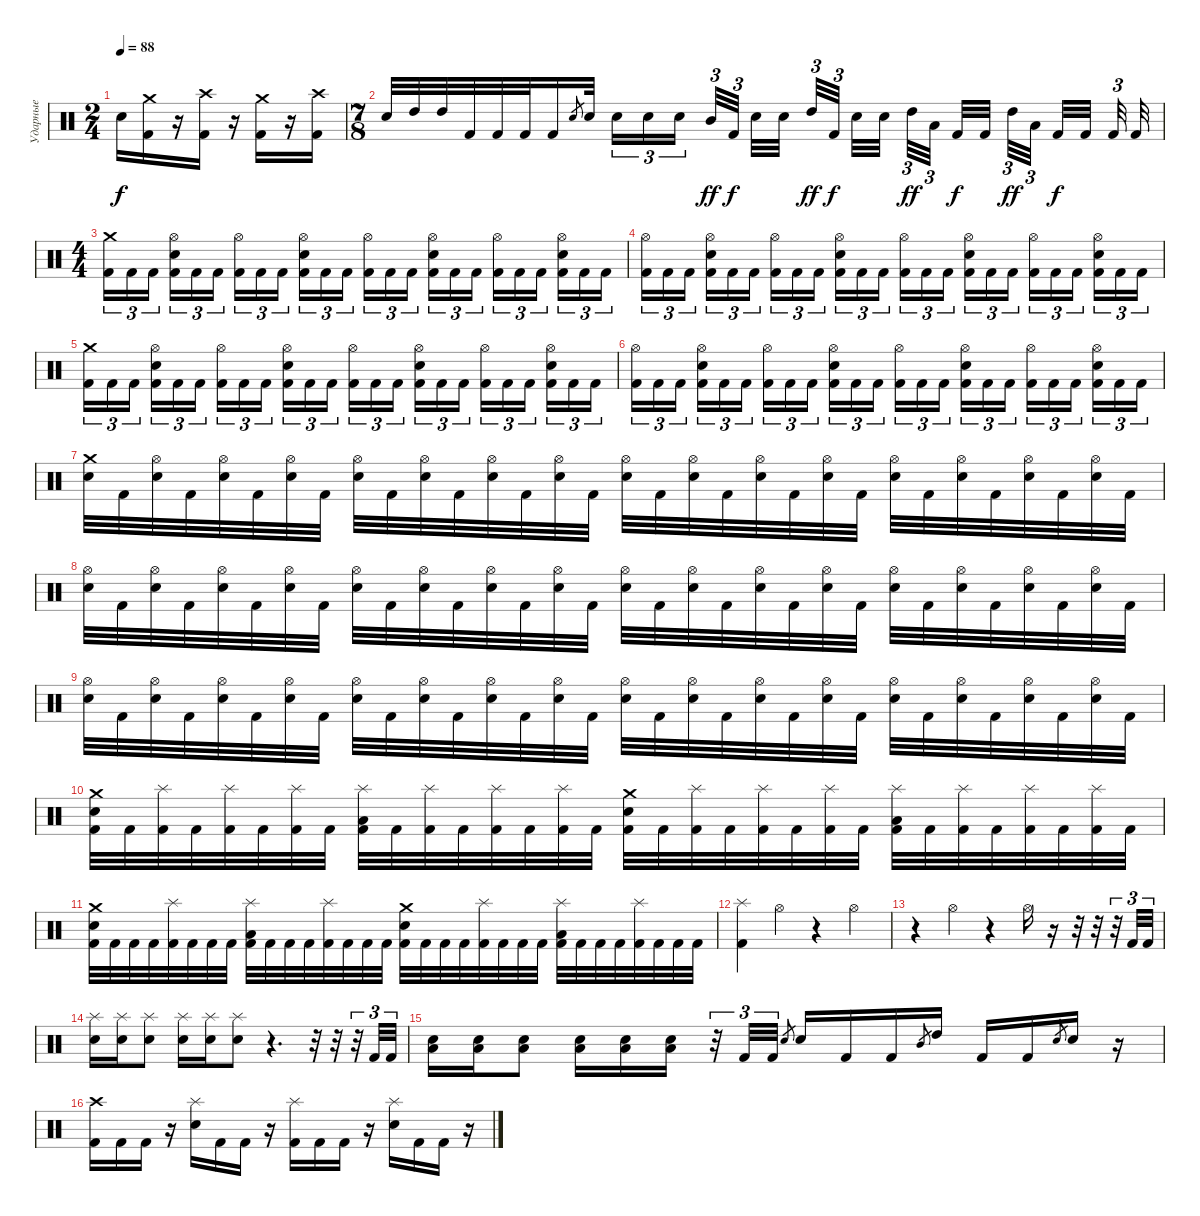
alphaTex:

\track ("Ударные" "Ударные") {instrument percussion}
\staff {score}
\articulation defaults
\ts (2 4)
\tempo 88
\clef neutral
\ks c "Electric Snare (hit)".16{dy f}
("Kick (hit) 2" "Crash medium (hit)").16 r.16 ("Kick (hit) 2" "Crash high (hit)").16 r.16 ("Kick (hit) 2" "Crash medium (hit)").16 r.16 ("Kick (hit) 2" "Crash high (hit)").16 |
\ts (7 8)
"Electric Snare (hit)".32 "High Tom (hit)".32 "High Tom (hit)".32 "Kick (hit) 2".32 "Kick (hit) 2".32 "Kick (hit) 2".32 "Kick (hit) 2".16 "Electric Snare (hit)".8{gr} "Electric Snare (hit)".32{beam splitsecondary} "Electric Snare (hit)".16{tu (3 2)} "Electric Snare (hit)".16{tu (3 2)} "Electric Snare (hit)".16{tu (3 2)} "Mid Tom (hit)".32{tu (3 2) dy ff} "Kick (hit) 2".32{tu (3 2) dy f beam splitsecondary} "Electric Snare (hit)".32 "Electric Snare (hit)".32 "High Tom (hit)".32{tu (3 2) dy ff} "Kick (hit) 2".32{tu (3 2) dy f beam splitsecondary} "Electric Snare (hit)".32 "Electric Snare (hit)".32{beam splitsecondary} "High Tom (hit)".32{tu (3 2) dy ff} "Low Tom (hit)".32{tu (3 2) beam splitsecondary} "Kick (hit) 2".32{dy f} "Kick (hit) 2".32{beam splitsecondary} "High Tom (hit)".32{tu (3 2) dy ff} "Low Tom (hit)".32{tu (3 2)} "Kick (hit) 2".32{dy f} "Kick (hit) 2".32{beam splitsecondary} "Kick (hit) 2".32{tu (3 2)} "Kick (hit) 2".32 |
\ts (4 4)
("Crash medium (hit)" "Kick (hit) 2").16{tu (3 2)} "Kick (hit) 2".16{tu (3 2)} "Kick (hit) 2".16{tu (3 2) beam splitsecondary} ("Hi-Hat (open)" "Electric Snare (hit)" "Kick (hit) 2").16{tu (3 2)} "Kick (hit) 2".16{tu (3 2)} "Kick (hit) 2".16{tu (3 2)} ("Hi-Hat (open)" "Kick (hit) 2").16{tu (3 2)} "Kick (hit) 2".16{tu (3 2)} "Kick (hit) 2".16{tu (3 2) beam splitsecondary} ("Hi-Hat (open)" "Electric Snare (hit)" "Kick (hit) 2").16{tu (3 2)} "Kick (hit) 2".16{tu (3 2)} "Kick (hit) 2".16{tu (3 2)} ("Hi-Hat (open)" "Kick (hit) 2").16{tu (3 2)} "Kick (hit) 2".16{tu (3 2)} "Kick (hit) 2".16{tu (3 2) beam splitsecondary} ("Hi-Hat (open)" "Electric Snare (hit)" "Kick (hit) 2").16{tu (3 2)} "Kick (hit) 2".16{tu (3 2)} "Kick (hit) 2".16{tu (3 2)} ("Hi-Hat (open)" "Kick (hit) 2").16{tu (3 2)} "Kick (hit) 2".16{tu (3 2)} "Kick (hit) 2".16{tu (3 2) beam splitsecondary} ("Hi-Hat (open)" "Electric Snare (hit)" "Kick (hit) 2").16{tu (3 2)} "Kick (hit) 2".16{tu (3 2)} "Kick (hit) 2".16{tu (3 2)} |
("Hi-Hat (open)" "Kick (hit) 2").16{tu (3 2)} "Kick (hit) 2".16{tu (3 2)} "Kick (hit) 2".16{tu (3 2) beam splitsecondary} ("Hi-Hat (open)" "Electric Snare (hit)" "Kick (hit) 2").16{tu (3 2)} "Kick (hit) 2".16{tu (3 2)} "Kick (hit) 2".16{tu (3 2)} ("Hi-Hat (open)" "Kick (hit) 2").16{tu (3 2)} "Kick (hit) 2".16{tu (3 2)} "Kick (hit) 2".16{tu (3 2) beam splitsecondary} ("Hi-Hat (open)" "Electric Snare (hit)" "Kick (hit) 2").16{tu (3 2)} "Kick (hit) 2".16{tu (3 2)} "Kick (hit) 2".16{tu (3 2)} ("Hi-Hat (open)" "Kick (hit) 2").16{tu (3 2)} "Kick (hit) 2".16{tu (3 2)} "Kick (hit) 2".16{tu (3 2) beam splitsecondary} ("Hi-Hat (open)" "Electric Snare (hit)" "Kick (hit) 2").16{tu (3 2)} "Kick (hit) 2".16{tu (3 2)} "Kick (hit) 2".16{tu (3 2)} ("Hi-Hat (open)" "Kick (hit) 2").16{tu (3 2)} "Kick (hit) 2".16{tu (3 2)} "Kick (hit) 2".16{tu (3 2) beam splitsecondary} ("Hi-Hat (open)" "Electric Snare (hit)" "Kick (hit) 2").16{tu (3 2)} "Kick (hit) 2".16{tu (3 2)} "Kick (hit) 2".16{tu (3 2)} |
("Crash medium (hit)" "Kick (hit) 2").16{tu (3 2)} "Kick (hit) 2".16{tu (3 2)} "Kick (hit) 2".16{tu (3 2) beam splitsecondary} ("Hi-Hat (open)" "Electric Snare (hit)" "Kick (hit) 2").16{tu (3 2)} "Kick (hit) 2".16{tu (3 2)} "Kick (hit) 2".16{tu (3 2)} ("Hi-Hat (open)" "Kick (hit) 2").16{tu (3 2)} "Kick (hit) 2".16{tu (3 2)} "Kick (hit) 2".16{tu (3 2) beam splitsecondary} ("Hi-Hat (open)" "Electric Snare (hit)" "Kick (hit) 2").16{tu (3 2)} "Kick (hit) 2".16{tu (3 2)} "Kick (hit) 2".16{tu (3 2)} ("Hi-Hat (open)" "Kick (hit) 2").16{tu (3 2)} "Kick (hit) 2".16{tu (3 2)} "Kick (hit) 2".16{tu (3 2) beam splitsecondary} ("Hi-Hat (open)" "Electric Snare (hit)" "Kick (hit) 2").16{tu (3 2)} "Kick (hit) 2".16{tu (3 2)} "Kick (hit) 2".16{tu (3 2)} ("Hi-Hat (open)" "Kick (hit) 2").16{tu (3 2)} "Kick (hit) 2".16{tu (3 2)} "Kick (hit) 2".16{tu (3 2) beam splitsecondary} ("Hi-Hat (open)" "Electric Snare (hit)" "Kick (hit) 2").16{tu (3 2)} "Kick (hit) 2".16{tu (3 2)} "Kick (hit) 2".16{tu (3 2)} |
("Hi-Hat (open)" "Kick (hit) 2").16{tu (3 2)} "Kick (hit) 2".16{tu (3 2)} "Kick (hit) 2".16{tu (3 2) beam splitsecondary} ("Hi-Hat (open)" "Electric Snare (hit)" "Kick (hit) 2").16{tu (3 2)} "Kick (hit) 2".16{tu (3 2)} "Kick (hit) 2".16{tu (3 2)} ("Hi-Hat (open)" "Kick (hit) 2").16{tu (3 2)} "Kick (hit) 2".16{tu (3 2)} "Kick (hit) 2".16{tu (3 2) beam splitsecondary} ("Hi-Hat (open)" "Electric Snare (hit)" "Kick (hit) 2").16{tu (3 2)} "Kick (hit) 2".16{tu (3 2)} "Kick (hit) 2".16{tu (3 2)} ("Hi-Hat (open)" "Kick (hit) 2").16{tu (3 2)} "Kick (hit) 2".16{tu (3 2)} "Kick (hit) 2".16{tu (3 2) beam splitsecondary} ("Hi-Hat (open)" "Electric Snare (hit)" "Kick (hit) 2").16{tu (3 2)} "Kick (hit) 2".16{tu (3 2)} "Kick (hit) 2".16{tu (3 2)} ("Hi-Hat (open)" "Kick (hit) 2").16{tu (3 2)} "Kick (hit) 2".16{tu (3 2)} "Kick (hit) 2".16{tu (3 2) beam splitsecondary} ("Hi-Hat (open)" "Electric Snare (hit)" "Kick (hit) 2").16{tu (3 2)} "Kick (hit) 2".16{tu (3 2)} "Kick (hit) 2".16{tu (3 2)} |
("Crash medium (hit)" "Electric Snare (hit)").32 "Kick (hit) 2".32 ("Hi-Hat (open)" "Electric Snare (hit)").32 "Kick (hit) 2".32 ("Hi-Hat (open)" "Electric Snare (hit)").32 "Kick (hit) 2".32 ("Hi-Hat (open)" "Electric Snare (hit)").32 "Kick (hit) 2".32 ("Hi-Hat (open)" "Electric Snare (hit)").32 "Kick (hit) 2".32 ("Hi-Hat (open)" "Electric Snare (hit)").32 "Kick (hit) 2".32 ("Hi-Hat (open)" "Electric Snare (hit)").32 "Kick (hit) 2".32 ("Hi-Hat (open)" "Electric Snare (hit)").32 "Kick (hit) 2".32 ("Hi-Hat (open)" "Electric Snare (hit)").32 "Kick (hit) 2".32 ("Hi-Hat (open)" "Electric Snare (hit)").32 "Kick (hit) 2".32 ("Hi-Hat (open)" "Electric Snare (hit)").32 "Kick (hit) 2".32 ("Hi-Hat (open)" "Electric Snare (hit)").32 "Kick (hit) 2".32 ("Hi-Hat (open)" "Electric Snare (hit)").32 "Kick (hit) 2".32 ("Hi-Hat (open)" "Electric Snare (hit)").32 "Kick (hit) 2".32 ("Hi-Hat (open)" "Electric Snare (hit)").32 "Kick (hit) 2".32 ("Hi-Hat (open)" "Electric Snare (hit)").32 "Kick (hit) 2".32 |
("Hi-Hat (open)" "Electric Snare (hit)").32 "Kick (hit) 2".32 ("Hi-Hat (open)" "Electric Snare (hit)").32 "Kick (hit) 2".32 ("Hi-Hat (open)" "Electric Snare (hit)").32 "Kick (hit) 2".32 ("Hi-Hat (open)" "Electric Snare (hit)").32 "Kick (hit) 2".32 ("Hi-Hat (open)" "Electric Snare (hit)").32 "Kick (hit) 2".32 ("Hi-Hat (open)" "Electric Snare (hit)").32 "Kick (hit) 2".32 ("Hi-Hat (open)" "Electric Snare (hit)").32 "Kick (hit) 2".32 ("Hi-Hat (open)" "Electric Snare (hit)").32 "Kick (hit) 2".32 ("Hi-Hat (open)" "Electric Snare (hit)").32 "Kick (hit) 2".32 ("Hi-Hat (open)" "Electric Snare (hit)").32 "Kick (hit) 2".32 ("Hi-Hat (open)" "Electric Snare (hit)").32 "Kick (hit) 2".32 ("Hi-Hat (open)" "Electric Snare (hit)").32 "Kick (hit) 2".32 ("Hi-Hat (open)" "Electric Snare (hit)").32 "Kick (hit) 2".32 ("Hi-Hat (open)" "Electric Snare (hit)").32 "Kick (hit) 2".32 ("Hi-Hat (open)" "Electric Snare (hit)").32 "Kick (hit) 2".32 ("Hi-Hat (open)" "Electric Snare (hit)").32 "Kick (hit) 2".32 |
("Hi-Hat (open)" "Electric Snare (hit)").32 "Kick (hit) 2".32 ("Hi-Hat (open)" "Electric Snare (hit)").32 "Kick (hit) 2".32 ("Hi-Hat (open)" "Electric Snare (hit)").32 "Kick (hit) 2".32 ("Hi-Hat (open)" "Electric Snare (hit)").32 "Kick (hit) 2".32 ("Hi-Hat (open)" "Electric Snare (hit)").32 "Kick (hit) 2".32 ("Hi-Hat (open)" "Electric Snare (hit)").32 "Kick (hit) 2".32 ("Hi-Hat (open)" "Electric Snare (hit)").32 "Kick (hit) 2".32 ("Hi-Hat (open)" "Electric Snare (hit)").32 "Kick (hit) 2".32 ("Hi-Hat (open)" "Electric Snare (hit)").32 "Kick (hit) 2".32 ("Hi-Hat (open)" "Electric Snare (hit)").32 "Kick (hit) 2".32 ("Hi-Hat (open)" "Electric Snare (hit)").32 "Kick (hit) 2".32 ("Hi-Hat (open)" "Electric Snare (hit)").32 "Kick (hit) 2".32 ("Hi-Hat (open)" "Electric Snare (hit)").32 "Kick (hit) 2".32 ("Hi-Hat (open)" "Electric Snare (hit)").32 "Kick (hit) 2".32 ("Hi-Hat (open)" "Electric Snare (hit)").32 "Kick (hit) 2".32 ("Hi-Hat (open)" "Electric Snare (hit)").32 "Kick (hit) 2".32 |
("Crash medium (hit)" "Electric Snare (hit)" "Kick (hit) 2").32 "Kick (hit) 2".32 ("Splash (hit)" "Kick (hit) 2").32 "Kick (hit) 2".32 ("Splash (hit)" "Kick (hit) 2").32 "Kick (hit) 2".32 ("Splash (hit)" "Kick (hit) 2").32 "Kick (hit) 2".32 ("Splash (hit)" "Low Tom (hit)" "Kick (hit) 2").32 "Kick (hit) 2".32 ("Splash (hit)" "Kick (hit) 2").32 "Kick (hit) 2".32 ("Splash (hit)" "Kick (hit) 2").32 "Kick (hit) 2".32 ("Splash (hit)" "Kick (hit) 2").32 "Kick (hit) 2".32 ("Crash medium (hit)" "Electric Snare (hit)" "Kick (hit) 2").32 "Kick (hit) 2".32 ("Splash (hit)" "Kick (hit) 2").32 "Kick (hit) 2".32 ("Splash (hit)" "Kick (hit) 2").32 "Kick (hit) 2".32 ("Splash (hit)" "Kick (hit) 2").32 "Kick (hit) 2".32 ("Splash (hit)" "Low Tom (hit)" "Kick (hit) 2").32 "Kick (hit) 2".32 ("Splash (hit)" "Kick (hit) 2").32 "Kick (hit) 2".32 ("Splash (hit)" "Kick (hit) 2").32 "Kick (hit) 2".32 ("Splash (hit)" "Kick (hit) 2").32 "Kick (hit) 2".32 |
("Crash medium (hit)" "Electric Snare (hit)" "Kick (hit) 2").32 "Kick (hit) 2".32 "Kick (hit) 2".32 "Kick (hit) 2".32 ("Splash (hit)" "Kick (hit) 2").32 "Kick (hit) 2".32 "Kick (hit) 2".32 "Kick (hit) 2".32 ("Splash (hit)" "Low Tom (hit)" "Kick (hit) 2").32 "Kick (hit) 2".32 "Kick (hit) 2".32 "Kick (hit) 2".32 ("Splash (hit)" "Kick (hit) 2").32 "Kick (hit) 2".32 "Kick (hit) 2".32 "Kick (hit) 2".32 ("Crash medium (hit)" "Electric Snare (hit)" "Kick (hit) 2").32 "Kick (hit) 2".32 "Kick (hit) 2".32 "Kick (hit) 2".32 ("Splash (hit)" "Kick (hit) 2").32 "Kick (hit) 2".32 "Kick (hit) 2".32 "Kick (hit) 2".32 ("Splash (hit)" "Low Tom (hit)" "Kick (hit) 2").32 "Kick (hit) 2".32 "Kick (hit) 2".32 "Kick (hit) 2".32 ("Splash (hit)" "Kick (hit) 2").32 "Kick (hit) 2".32 "Kick (hit) 2".32 "Kick (hit) 2".32 |
("Splash (hit)" "Kick (hit) 2").4 "Hi-Hat (open)".4 r.4 "Hi-Hat (open)".4 |
r.4 "Hi-Hat (open)".4 r.4 "Hi-Hat (open)".16 r.16 r.32 r.32 r.32{tu (3 2)} "Kick (hit) 2".32{tu (3 2)} "Kick (hit) 2".32{tu (3 2)} |
("Splash (hit)" "Electric Snare (hit)").16 ("Splash (hit)" "Electric Snare (hit)").16 ("Splash (hit)" "Electric Snare (hit)").8 ("Splash (hit)" "Electric Snare (hit)").16 ("Splash (hit)" "Electric Snare (hit)").16 ("Splash (hit)" "Electric Snare (hit)").8 r.4{d} r.32 r.32 r.32{tu (3 2)} "Kick (hit) 2".32{tu (3 2)} "Kick (hit) 2".32{tu (3 2)} |
("Low Tom (hit)" "Electric Snare (hit)").16 ("Low Tom (hit)" "Electric Snare (hit)").16 ("Low Tom (hit)" "Electric Snare (hit)").8 ("Low Tom (hit)" "Electric Snare (hit)").16 ("Low Tom (hit)" "Electric Snare (hit)").16 ("Low Tom (hit)" "Electric Snare (hit)").16 r.32{tu (3 2)} "Kick (hit) 2".32{tu (3 2)} "Kick (hit) 2".32{tu (3 2)} "Electric Snare (hit)".8{gr} "Electric Snare (hit)".16 "Kick (hit) 2".16 "Kick (hit) 2".16 "Mid Tom (hit)".8{gr} "High Tom (hit)".16 "Kick (hit) 2".16 "Kick (hit) 2".16 "Electric Snare (hit)".8{gr} "Electric Snare (hit)".16 r.16 |
("Kick (hit) 2" "Crash high (hit)").16 "Kick (hit) 2".16 "Kick (hit) 2".16 r.16 ("Electric Snare (hit)" "Splash (hit)").16 "Kick (hit) 2".16 "Kick (hit) 2".16 r.16 ("Kick (hit) 2" "Splash (hit)").16 "Kick (hit) 2".16 "Kick (hit) 2".16 r.16 ("Electric Snare (hit)" "Splash (hit)").16 "Kick (hit) 2".16 "Kick (hit) 2".16 r.16
